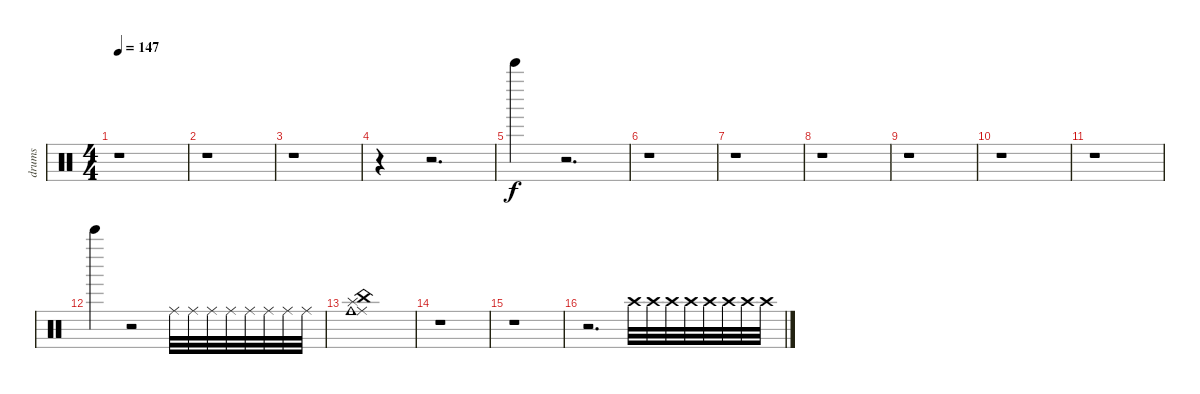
\track ("drums" "drums") {instrument percussion}
\staff {score}
\articulation defaults
\ts (4 4)
\tempo 147
\clef neutral
\ks c
r.1{dy f} |
r.1 |
r.1 |
r.4 r.2{d} |
"Bell Tree (hit)".4 r.2{d} |
r.1 |
r.1 |
r.1 |
r.1 |
r.1 |
r.1 |
"Bell Tree (hit)".4{volume 10} r.2{volume 0} "Ride (middle)".32{volume 16} "Ride (middle)".32 "Ride (middle)".32 "Ride (middle)".32 "Ride (middle)".32 "Ride (middle)".32 "Ride (middle)".32 "Ride (middle)".32 |
("Ride (middle)" "China (hit)" "Splash (hit)" "Cowbell medium (hit)").1 |
r.1 |
r.1 |
r.2{d volume 0} "Crash high (hit)".32{volume 16} "Crash high (hit)".32 "Crash high (hit)".32 "Crash high (hit)".32 "Crash high (hit)".32 "Crash high (hit)".32 "Crash high (hit)".32 "Crash high (hit)".32
